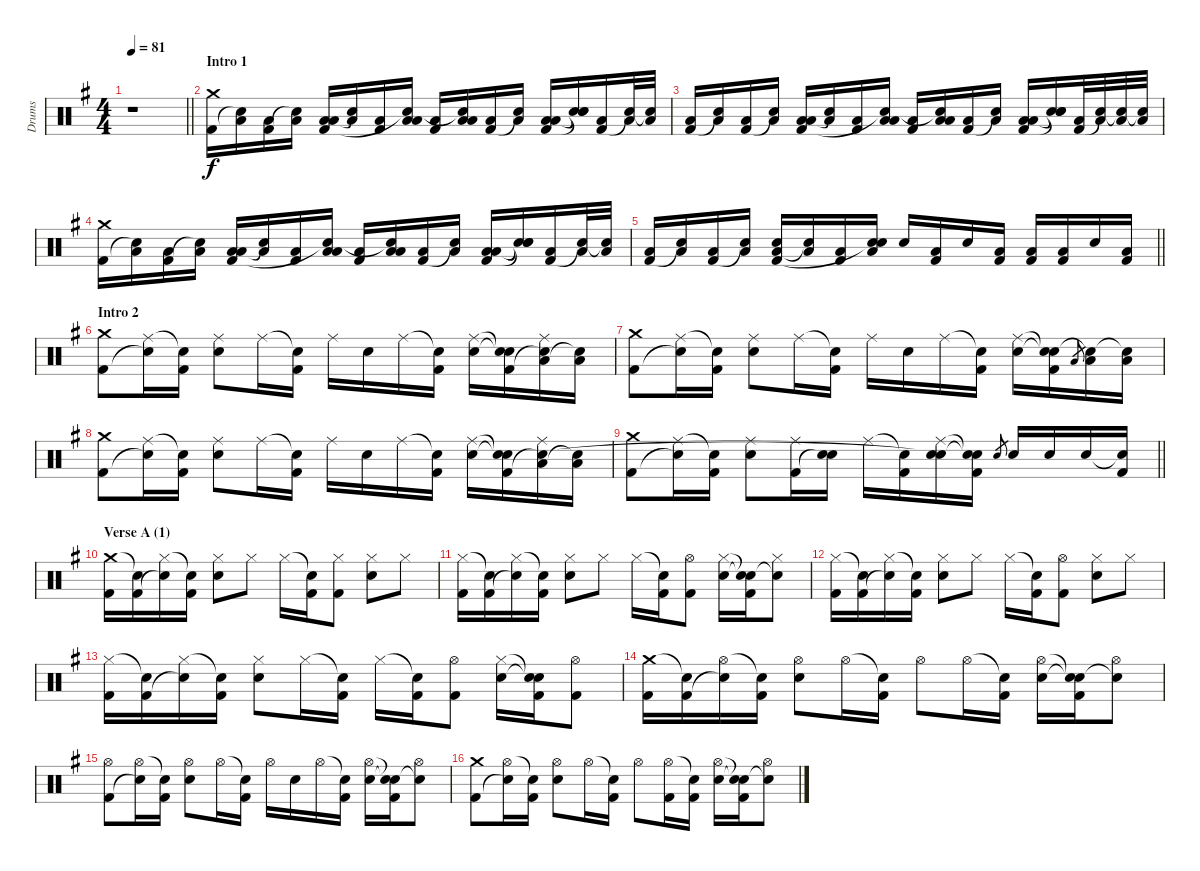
\track ("Drums" "Drums") {instrument percussion}
\staff {score}
\articulation defaults
\ts (4 4)
\tempo 81
\clef neutral
\barLineRight lightlight
\ks g
r.1{dy f} |
\section ("" "Intro 1")
("Crash medium (hit)" "Kick (hit) 2").16 ("Low Floor Tom (hit)" "Snare (hit)"{t}).16 ("Low Floor Tom (hit)" "Kick (hit) 2").16 ("Low Floor Tom (hit)" "Snare (hit)"{t}).16 ("Low Tom (hit)" "Low Floor Tom (hit)" "Kick (hit) 2").16 ("Low Floor Tom (hit)" "Snare (hit)"{t}).16 ("Low Floor Tom (hit)" "Kick (hit) 2").16 ("Low Tom (hit)" "Low Floor Tom (hit)" "Snare (hit)"{t}).16 ("Low Floor Tom (hit)" "Kick (hit) 2").16 ("Low Tom (hit)" "Low Floor Tom (hit)" "Snare (hit)"{t}).16 ("Low Floor Tom (hit)" "Kick (hit) 2").16 ("Low Floor Tom (hit)" "Snare (hit)"{t}).16 ("Low Tom (hit)" "Low Floor Tom (hit)" "Kick (hit) 2").16 ("Snare (hit)"{t} "Snare (hit)"{t} "Snare (hit)"{t}).16 ("Low Floor Tom (hit)" "Kick (hit) 2").16 ("Low Floor Tom (hit)" "Snare (hit)"{t}).32 ("Low Floor Tom (hit)" "Snare (hit)"{t}).32 |
("Low Floor Tom (hit)" "Kick (hit) 2").16 ("Low Floor Tom (hit)" "Snare (hit)"{t}).16 ("Low Floor Tom (hit)" "Kick (hit) 2").16 ("Low Floor Tom (hit)" "Snare (hit)"{t}).16 ("Low Tom (hit)" "Low Floor Tom (hit)" "Kick (hit) 2").16 ("Low Floor Tom (hit)" "Snare (hit)"{t}).16 ("Low Floor Tom (hit)" "Kick (hit) 2").16 ("Low Tom (hit)" "Low Floor Tom (hit)" "Snare (hit)"{t}).16 ("Low Floor Tom (hit)" "Kick (hit) 2").16 ("Low Tom (hit)" "Low Floor Tom (hit)" "Snare (hit)"{t}).16 ("Low Floor Tom (hit)" "Kick (hit) 2").16 ("Low Floor Tom (hit)" "Snare (hit)"{t}).16 ("Low Tom (hit)" "Low Floor Tom (hit)" "Kick (hit) 2").16 ("Snare (hit)"{t} "Snare (hit)"{t} "Snare (hit)"{t}).16 ("Low Floor Tom (hit)" "Kick (hit) 2").32 ("Low Floor Tom (hit)" "Snare (hit)"{t}).32 ("Low Floor Tom (hit)" "Snare (hit)"{t}).32 ("Low Floor Tom (hit)" "Snare (hit)"{t}).32 |
("Crash medium (hit)" "Kick (hit) 2").16 ("Low Floor Tom (hit)" "Snare (hit)"{t}).16 ("Low Floor Tom (hit)" "Kick (hit) 2").16 ("Low Floor Tom (hit)" "Snare (hit)"{t}).16 ("Low Tom (hit)" "Low Floor Tom (hit)" "Kick (hit) 2").16 ("Low Floor Tom (hit)" "Snare (hit)"{t}).16 ("Low Floor Tom (hit)" "Kick (hit) 2").16 ("Low Tom (hit)" "Low Floor Tom (hit)" "Snare (hit)"{t}).16 ("Low Floor Tom (hit)" "Kick (hit) 2").16 ("Low Tom (hit)" "Low Floor Tom (hit)" "Snare (hit)"{t}).16 ("Low Floor Tom (hit)" "Kick (hit) 2").16 ("Low Floor Tom (hit)" "Snare (hit)"{t}).16 ("Low Tom (hit)" "Low Floor Tom (hit)" "Kick (hit) 2").16 ("Snare (hit)"{t} "Snare (hit)"{t} "Snare (hit)"{t}).16 ("Low Floor Tom (hit)" "Kick (hit) 2").16 ("Low Floor Tom (hit)" "Snare (hit)"{t}).32 ("Low Floor Tom (hit)" "Snare (hit)"{t}).32 |
\barLineRight lightlight
("Low Floor Tom (hit)" "Kick (hit) 2").16 ("Low Floor Tom (hit)" "Snare (hit)"{t}).16 ("Low Floor Tom (hit)" "Kick (hit) 2").16 ("Low Floor Tom (hit)" "Snare (hit)"{t}).16 ("Electric Snare (hit)" "Low Floor Tom (hit)" "Kick (hit) 2").16 ("Low Floor Tom (hit)" "Snare (hit)"{t}).16 ("Low Floor Tom (hit)" "Kick (hit) 2").16 ("Electric Snare (hit)" "Low Floor Tom (hit)" "Snare (hit)"{t}).16 "Electric Snare (hit)".16 ("Low Floor Tom (hit)" "Kick (hit) 2").16 "Electric Snare (hit)".16 ("Low Floor Tom (hit)" "Kick (hit) 2").16 ("Low Floor Tom (hit)" "Kick (hit) 2").16 ("Low Floor Tom (hit)" "Kick (hit) 2").16 "Electric Snare (hit)".16 ("Low Floor Tom (hit)" "Kick (hit) 2").16 |
\section ("" "Intro 2")
("Crash medium (hit)" "Kick (hit) 2").8 ("Ride (middle)" "Snare (hit)"{t}).16 ("Snare (hit)"{t} "Kick (hit) 2").16 ("Ride (middle)" "Electric Snare (hit)").8 "Ride (middle)".16 ("Snare (hit)"{t} "Kick (hit) 2").16 "Ride (middle)".16 "Electric Snare (hit)".16 "Ride (middle)".16 ("Snare (hit)"{t} "Kick (hit) 2").16 ("Ride (middle)" "Electric Snare (hit)").16 ("Snare (hit)"{t} "Snare (hit)"{t} "Kick (hit) 2").16 ("Ride (middle)" "Low Tom (hit)" "Snare (hit)"{t}).16 ("Low Tom (hit)" "Snare (hit)"{t}).16 |
("Crash medium (hit)" "Kick (hit) 2").8 ("Ride (middle)" "Snare (hit)"{t}).16 ("Snare (hit)"{t} "Kick (hit) 2").16 ("Ride (middle)" "Electric Snare (hit)").8 "Ride (middle)".16 ("Snare (hit)"{t} "Kick (hit) 2").16 "Ride (middle)".16 "Electric Snare (hit)".16 "Ride (middle)".16 ("Snare (hit)"{t} "Kick (hit) 2").16 ("Ride (middle)" "Electric Snare (hit)").16 ("Snare (hit)"{t} "Snare (hit)"{t} "Kick (hit) 2").16 "Low Floor Tom (hit)".8{gr} ("Low Floor Tom (hit)" "Snare (hit)"{t}).16 ("Low Floor Tom (hit)" "Snare (hit)"{t}).16 |
("Crash medium (hit)" "Kick (hit) 2").8 ("Ride (middle)" "Snare (hit)"{t}).16 ("Snare (hit)"{t} "Kick (hit) 2").16 ("Ride (middle)" "Electric Snare (hit)").8 "Ride (middle)".16 ("Snare (hit)"{t} "Kick (hit) 2").16 "Ride (middle)".16 "Electric Snare (hit)".16 "Ride (middle)".16 ("Snare (hit)"{t} "Kick (hit) 2").16 ("Ride (middle)" "Electric Snare (hit)").16 ("Snare (hit)"{t} "Snare (hit)"{t} "Kick (hit) 2").16 ("Ride (middle)" "Low Tom (hit)" "Snare (hit)"{t}).16 ("Low Tom (hit)" "Snare (hit)"{t}).16 |
\barLineRight lightlight
("Crash medium (hit)" "Kick (hit) 2").8 ("Ride (middle)" "Snare (hit)"{t}).16 ("Snare (hit)"{t} "Kick (hit) 2").16 ("Ride (middle)" "Electric Snare (hit)").8 ("Ride (middle)" "Kick (hit) 2").16 ("Electric Snare (hit)" "Snare (hit)"{t}).16 "Ride (middle)".16 ("Snare (hit)"{t} "Kick (hit) 2").16 ("Ride (middle)" "Electric Snare (hit)" "Snare (hit)"{t}).16 ("Snare (hit)"{t} "Snare (hit)"{t} "Kick (hit) 2").16 "Electric Snare (hit)".8{gr} "Electric Snare (hit)".16 "Electric Snare (hit)".16 "Electric Snare (hit)".16 ("Snare (hit)"{t} "Kick (hit) 2").16 |
\section ("" "Verse A (1)")
("Crash medium (hit)" "Kick (hit) 2").16 ("Snare (hit)"{t} "Kick (hit) 2").16 ("Hi-Hat (closed)" "Snare (hit)"{t}).16 ("Snare (hit)"{t} "Kick (hit) 2").16 ("Hi-Hat (closed)" "Electric Snare (hit)").8 "Hi-Hat (closed)".8 "Hi-Hat (closed)".16 ("Snare (hit)"{t} "Kick (hit) 2").16 ("Hi-Hat (closed)" "Kick (hit) 2").8 ("Hi-Hat (closed)" "Electric Snare (hit)").8 "Hi-Hat (closed)".8 |
("Hi-Hat (closed)" "Kick (hit) 2").16 ("Snare (hit)"{t} "Kick (hit) 2").16 ("Hi-Hat (closed)" "Snare (hit)"{t}).16 ("Snare (hit)"{t} "Kick (hit) 2").16 ("Hi-Hat (closed)" "Electric Snare (hit)").8 "Hi-Hat (closed)".8 "Hi-Hat (closed)".16 ("Snare (hit)"{t} "Kick (hit) 2").16 ("Hi-Hat (open)" "Kick (hit) 2").8 ("Hi-Hat (closed)" "Electric Snare (hit)").16 ("Snare (hit)"{t} "Snare (hit)"{t} "Kick (hit) 2").16 ("Hi-Hat (closed)" "Snare (hit)"{t}).8 |
("Hi-Hat (closed)" "Kick (hit) 2").16 ("Snare (hit)"{t} "Kick (hit) 2").16 ("Hi-Hat (closed)" "Snare (hit)"{t}).16 ("Snare (hit)"{t} "Kick (hit) 2").16 ("Hi-Hat (closed)" "Electric Snare (hit)").8 "Hi-Hat (closed)".8 "Hi-Hat (closed)".16 ("Snare (hit)"{t} "Kick (hit) 2").16 ("Hi-Hat (open)" "Kick (hit) 2").8 ("Hi-Hat (closed)" "Electric Snare (hit)").8 "Hi-Hat (closed)".8 |
("Hi-Hat (closed)" "Kick (hit) 2").16 ("Snare (hit)"{t} "Kick (hit) 2").16 ("Hi-Hat (closed)" "Snare (hit)"{t}).16 ("Snare (hit)"{t} "Kick (hit) 2").16 ("Hi-Hat (closed)" "Electric Snare (hit)").8 "Hi-Hat (closed)".16 ("Snare (hit)"{t} "Kick (hit) 2").16 "Hi-Hat (closed)".16 ("Snare (hit)"{t} "Kick (hit) 2").16 ("Hi-Hat (open)" "Kick (hit) 2").8 ("Hi-Hat (closed)" "Electric Snare (hit)").16 ("Snare (hit)"{t} "Snare (hit)"{t} "Kick (hit) 2").16 ("Hi-Hat (open)" "Kick (hit) 2").8 |
("Crash medium (hit)" "Kick (hit) 2").16 ("Snare (hit)"{t} "Kick (hit) 2").16 ("Hi-Hat (open)" "Snare (hit)"{t}).16 ("Snare (hit)"{t} "Kick (hit) 2").16 ("Hi-Hat (open)" "Electric Snare (hit)").8 "Hi-Hat (open)".16 ("Snare (hit)"{t} "Kick (hit) 2").16 "Hi-Hat (open)".8 "Hi-Hat (open)".16 ("Snare (hit)"{t} "Kick (hit) 2").16 ("Hi-Hat (open)" "Electric Snare (hit)").16 ("Snare (hit)"{t} "Snare (hit)"{t} "Kick (hit) 2").16 ("Hi-Hat (open)" "Snare (hit)"{t}).8 |
("Hi-Hat (open)" "Kick (hit) 2").8 ("Hi-Hat (open)" "Snare (hit)"{t}).16 ("Snare (hit)"{t} "Kick (hit) 2").16 ("Hi-Hat (open)" "Electric Snare (hit)").8 "Hi-Hat (open)".16 ("Snare (hit)"{t} "Kick (hit) 2").16 "Hi-Hat (open)".16 "Electric Snare (hit)".16 "Hi-Hat (open)".16 ("Snare (hit)"{t} "Kick (hit) 2").16 ("Hi-Hat (open)" "Electric Snare (hit)").16 ("Snare (hit)"{t} "Snare (hit)"{t} "Kick (hit) 2").16 ("Hi-Hat (open)" "Snare (hit)"{t}).8 |
("Crash medium (hit)" "Kick (hit) 2").8 ("Hi-Hat (open)" "Snare (hit)"{t}).16 ("Snare (hit)"{t} "Kick (hit) 2").16 ("Hi-Hat (open)" "Electric Snare (hit)").8 "Hi-Hat (open)".16 ("Snare (hit)"{t} "Kick (hit) 2").16 "Hi-Hat (open)".8 ("Hi-Hat (open)" "Kick (hit) 2").16 ("Snare (hit)"{t} "Kick (hit) 2").16 ("Hi-Hat (open)" "Electric Snare (hit)").16 ("Snare (hit)"{t} "Snare (hit)"{t} "Kick (hit) 2").16 ("Hi-Hat (open)" "Snare (hit)"{t}).8
